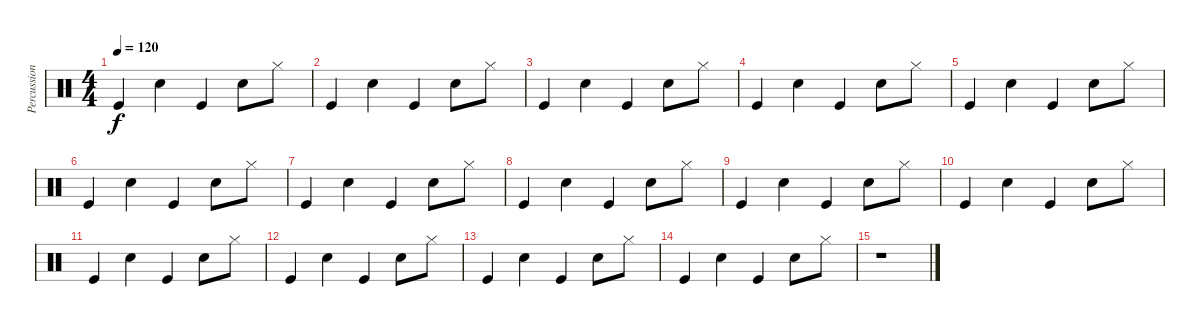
\track ("Percussion" "Percussion") {instrument percussion}
\staff {score}
\articulation defaults
\ts (4 4)
\tempo 120
\clef neutral
\ks c "Kick (hit)".4{dy f} "Snare (hit) 2".4 "Kick (hit)".4 "Snare (hit) 2".8 "Hi-Hat (closed)".8
|
"Kick (hit)".4 "Snare (hit) 2".4 "Kick (hit)".4 "Snare (hit) 2".8 "Hi-Hat (closed)".8 |
"Kick (hit)".4 "Snare (hit) 2".4 "Kick (hit)".4 "Snare (hit) 2".8 "Hi-Hat (closed)".8 |
"Kick (hit)".4 "Snare (hit) 2".4 "Kick (hit)".4 "Snare (hit) 2".8 "Hi-Hat (closed)".8 |
"Kick (hit)".4 "Snare (hit) 2".4 "Kick (hit)".4 "Snare (hit) 2".8 "Hi-Hat (closed)".8 |
"Kick (hit)".4 "Snare (hit) 2".4 "Kick (hit)".4 "Snare (hit) 2".8 "Hi-Hat (closed)".8 |
"Kick (hit)".4 "Snare (hit) 2".4 "Kick (hit)".4 "Snare (hit) 2".8 "Hi-Hat (closed)".8 |
"Kick (hit)".4 "Snare (hit) 2".4 "Kick (hit)".4 "Snare (hit) 2".8 "Hi-Hat (closed)".8 |
"Kick (hit)".4 "Snare (hit) 2".4 "Kick (hit)".4 "Snare (hit) 2".8 "Hi-Hat (closed)".8 |
"Kick (hit)".4 "Snare (hit) 2".4 "Kick (hit)".4 "Snare (hit) 2".8 "Hi-Hat (closed)".8 |
"Kick (hit)".4 "Snare (hit) 2".4 "Kick (hit)".4 "Snare (hit) 2".8 "Hi-Hat (closed)".8 |
"Kick (hit)".4 "Snare (hit) 2".4 "Kick (hit)".4 "Snare (hit) 2".8 "Hi-Hat (closed)".8 |
"Kick (hit)".4 "Snare (hit) 2".4 "Kick (hit)".4 "Snare (hit) 2".8 "Hi-Hat (closed)".8 |
"Kick (hit)".4 "Snare (hit) 2".4 "Kick (hit)".4 "Snare (hit) 2".8 "Hi-Hat (closed)".8 |
r.1
